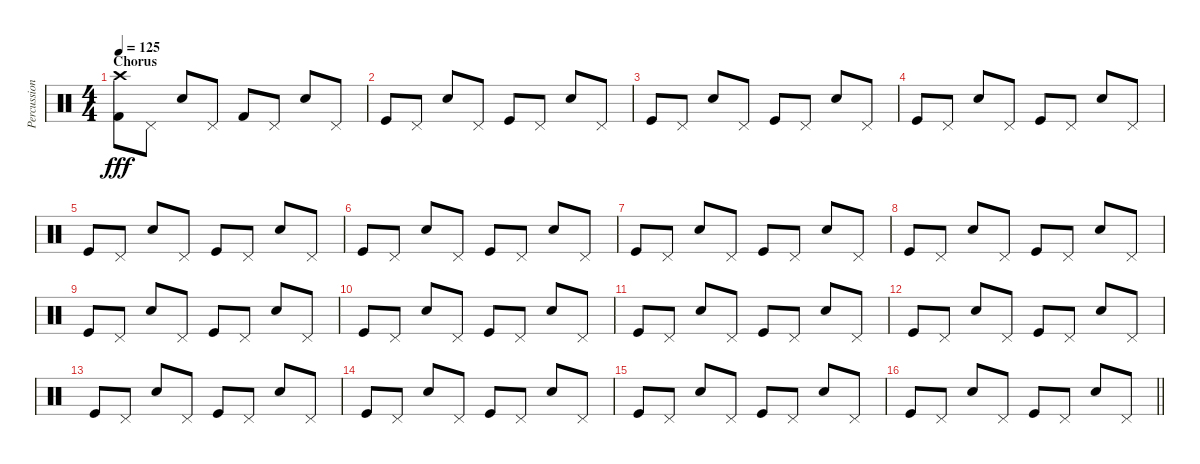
\track ("Percussion" "Percussion") {instrument percussion}
\staff {score}
\articulation defaults
\ts (4 4)
\section ("" "Chorus")
\tempo 125
\clef neutral
\ks c
("Crash high (hit)" "Kick (hit) 2").8{dy fff} "Pedal Hi-Hat (hit)".8 "Electric Snare (hit)".8 "Pedal Hi-Hat (hit)".8 "Kick (hit) 2".8 "Pedal Hi-Hat (hit)".8 "Electric Snare (hit)".8 "Pedal Hi-Hat (hit)".8 |
"Kick (hit)".8 "Pedal Hi-Hat (hit)".8 "Electric Snare (hit)".8 "Pedal Hi-Hat (hit)".8 "Kick (hit)".8 "Pedal Hi-Hat (hit)".8 "Electric Snare (hit)".8 "Pedal Hi-Hat (hit)".8 |
"Kick (hit)".8 "Pedal Hi-Hat (hit)".8 "Electric Snare (hit)".8 "Pedal Hi-Hat (hit)".8 "Kick (hit)".8 "Pedal Hi-Hat (hit)".8 "Electric Snare (hit)".8 "Pedal Hi-Hat (hit)".8 |
"Kick (hit)".8 "Pedal Hi-Hat (hit)".8 "Electric Snare (hit)".8 "Pedal Hi-Hat (hit)".8 "Kick (hit)".8 "Pedal Hi-Hat (hit)".8 "Electric Snare (hit)".8 "Pedal Hi-Hat (hit)".8 |
"Kick (hit)".8 "Pedal Hi-Hat (hit)".8 "Electric Snare (hit)".8 "Pedal Hi-Hat (hit)".8 "Kick (hit)".8 "Pedal Hi-Hat (hit)".8 "Electric Snare (hit)".8 "Pedal Hi-Hat (hit)".8 |
"Kick (hit)".8 "Pedal Hi-Hat (hit)".8 "Electric Snare (hit)".8 "Pedal Hi-Hat (hit)".8 "Kick (hit)".8 "Pedal Hi-Hat (hit)".8 "Electric Snare (hit)".8 "Pedal Hi-Hat (hit)".8 |
"Kick (hit)".8 "Pedal Hi-Hat (hit)".8 "Electric Snare (hit)".8 "Pedal Hi-Hat (hit)".8 "Kick (hit)".8 "Pedal Hi-Hat (hit)".8 "Electric Snare (hit)".8 "Pedal Hi-Hat (hit)".8 |
"Kick (hit)".8 "Pedal Hi-Hat (hit)".8 "Electric Snare (hit)".8 "Pedal Hi-Hat (hit)".8 "Kick (hit)".8 "Pedal Hi-Hat (hit)".8 "Electric Snare (hit)".8 "Pedal Hi-Hat (hit)".8 |
"Kick (hit)".8 "Pedal Hi-Hat (hit)".8 "Electric Snare (hit)".8 "Pedal Hi-Hat (hit)".8 "Kick (hit)".8 "Pedal Hi-Hat (hit)".8 "Electric Snare (hit)".8 "Pedal Hi-Hat (hit)".8 |
"Kick (hit)".8 "Pedal Hi-Hat (hit)".8 "Electric Snare (hit)".8 "Pedal Hi-Hat (hit)".8 "Kick (hit)".8 "Pedal Hi-Hat (hit)".8 "Electric Snare (hit)".8 "Pedal Hi-Hat (hit)".8 |
"Kick (hit)".8 "Pedal Hi-Hat (hit)".8 "Electric Snare (hit)".8 "Pedal Hi-Hat (hit)".8 "Kick (hit)".8 "Pedal Hi-Hat (hit)".8 "Electric Snare (hit)".8 "Pedal Hi-Hat (hit)".8 |
"Kick (hit)".8 "Pedal Hi-Hat (hit)".8 "Electric Snare (hit)".8 "Pedal Hi-Hat (hit)".8 "Kick (hit)".8 "Pedal Hi-Hat (hit)".8 "Electric Snare (hit)".8 "Pedal Hi-Hat (hit)".8 |
"Kick (hit)".8 "Pedal Hi-Hat (hit)".8 "Electric Snare (hit)".8 "Pedal Hi-Hat (hit)".8 "Kick (hit)".8 "Pedal Hi-Hat (hit)".8 "Electric Snare (hit)".8 "Pedal Hi-Hat (hit)".8 |
"Kick (hit)".8 "Pedal Hi-Hat (hit)".8 "Electric Snare (hit)".8 "Pedal Hi-Hat (hit)".8 "Kick (hit)".8 "Pedal Hi-Hat (hit)".8 "Electric Snare (hit)".8 "Pedal Hi-Hat (hit)".8 |
"Kick (hit)".8 "Pedal Hi-Hat (hit)".8 "Electric Snare (hit)".8 "Pedal Hi-Hat (hit)".8 "Kick (hit)".8 "Pedal Hi-Hat (hit)".8 "Electric Snare (hit)".8 "Pedal Hi-Hat (hit)".8 |
\barLineRight lightlight "Kick (hit)".8 "Pedal Hi-Hat (hit)".8 "Electric Snare (hit)".8 "Pedal Hi-Hat (hit)".8 "Kick (hit)".8 "Pedal Hi-Hat (hit)".8 "Electric Snare (hit)".8 "Pedal Hi-Hat (hit)".8
